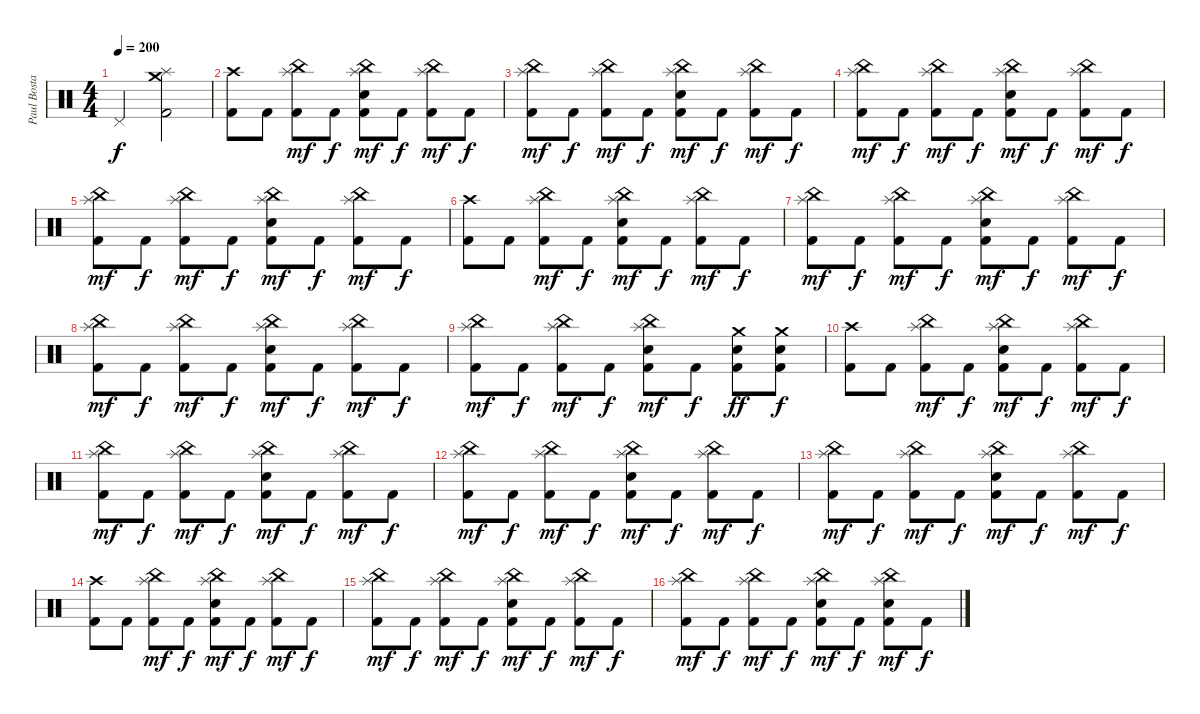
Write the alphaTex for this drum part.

\track ("Paul Bostaph" "Paul Bosta") {instrument percussion}
\staff {score}
\articulation defaults
\ts (4 4)
\tempo 200
\clef neutral
\ks c "Pedal Hi-Hat (hit)".2{dy f}
("Crash medium (hit)" "Splash (hit)" "Kick (hit) 2").2 |
("Kick (hit) 2" "Crash high (hit)").8 "Kick (hit) 2".8 ("Kick (hit) 2" "Splash (hit)" "China (hit)").8{dy mf} "Kick (hit) 2".8{dy f} ("Kick (hit) 2" "Electric Snare (hit)" "Splash (hit)" "China (hit)").8{dy mf} "Kick (hit) 2".8{dy f} ("Kick (hit) 2" "Splash (hit)" "China (hit)").8{dy mf} "Kick (hit) 2".8{dy f} |
("Kick (hit) 2" "Splash (hit)" "China (hit)").8{dy mf} "Kick (hit) 2".8{dy f} ("Kick (hit) 2" "Splash (hit)" "China (hit)").8{dy mf} "Kick (hit) 2".8{dy f} ("Kick (hit) 2" "Electric Snare (hit)" "Splash (hit)" "China (hit)").8{dy mf} "Kick (hit) 2".8{dy f} ("Kick (hit) 2" "Splash (hit)" "China (hit)").8{dy mf} "Kick (hit) 2".8{dy f} |
("Kick (hit) 2" "Splash (hit)" "China (hit)").8{dy mf} "Kick (hit) 2".8{dy f} ("Kick (hit) 2" "Splash (hit)" "China (hit)").8{dy mf} "Kick (hit) 2".8{dy f} ("Kick (hit) 2" "Electric Snare (hit)" "Splash (hit)" "China (hit)").8{dy mf} "Kick (hit) 2".8{dy f} ("Kick (hit) 2" "Splash (hit)" "China (hit)").8{dy mf} "Kick (hit) 2".8{dy f} |
("Kick (hit) 2" "Splash (hit)" "China (hit)").8{dy mf} "Kick (hit) 2".8{dy f} ("Kick (hit) 2" "Splash (hit)" "China (hit)").8{dy mf} "Kick (hit) 2".8{dy f} ("Kick (hit) 2" "Electric Snare (hit)" "Splash (hit)" "China (hit)").8{dy mf} "Kick (hit) 2".8{dy f} ("Kick (hit) 2" "Splash (hit)" "China (hit)").8{dy mf} "Kick (hit) 2".8{dy f} |
("Kick (hit) 2" "Crash high (hit)").8 "Kick (hit) 2".8 ("Kick (hit) 2" "Splash (hit)" "China (hit)").8{dy mf} "Kick (hit) 2".8{dy f} ("Kick (hit) 2" "Electric Snare (hit)" "Splash (hit)" "China (hit)").8{dy mf} "Kick (hit) 2".8{dy f} ("Kick (hit) 2" "Splash (hit)" "China (hit)").8{dy mf} "Kick (hit) 2".8{dy f} |
("Kick (hit) 2" "Splash (hit)" "China (hit)").8{dy mf} "Kick (hit) 2".8{dy f} ("Kick (hit) 2" "Splash (hit)" "China (hit)").8{dy mf} "Kick (hit) 2".8{dy f} ("Kick (hit) 2" "Electric Snare (hit)" "Splash (hit)" "China (hit)").8{dy mf} "Kick (hit) 2".8{dy f} ("Kick (hit) 2" "Splash (hit)" "China (hit)").8{dy mf} "Kick (hit) 2".8{dy f} |
("Kick (hit) 2" "Splash (hit)" "China (hit)").8{dy mf} "Kick (hit) 2".8{dy f} ("Kick (hit) 2" "Splash (hit)" "China (hit)").8{dy mf} "Kick (hit) 2".8{dy f} ("Kick (hit) 2" "Electric Snare (hit)" "Splash (hit)" "China (hit)").8{dy mf} "Kick (hit) 2".8{dy f} ("Kick (hit) 2" "Splash (hit)" "China (hit)").8{dy mf} "Kick (hit) 2".8{dy f} |
("Kick (hit) 2" "Splash (hit)" "China (hit)").8{dy mf} "Kick (hit) 2".8{dy f} ("Kick (hit) 2" "Splash (hit)" "China (hit)").8{dy mf} "Kick (hit) 2".8{dy f} ("Kick (hit) 2" "Electric Snare (hit)" "Splash (hit)" "China (hit)").8{dy mf} "Kick (hit) 2".8{dy f} ("Kick (hit) 2" "Electric Snare (hit)" "Crash medium (hit)").8{dy ff} ("Kick (hit) 2" "Electric Snare (hit)" "Crash medium (hit)").8{dy f} |
("Kick (hit) 2" "Crash high (hit)").8 "Kick (hit) 2".8 ("Kick (hit) 2" "Splash (hit)" "China (hit)").8{dy mf} "Kick (hit) 2".8{dy f} ("Kick (hit) 2" "Electric Snare (hit)" "Splash (hit)" "China (hit)").8{dy mf} "Kick (hit) 2".8{dy f} ("Kick (hit) 2" "Splash (hit)" "China (hit)").8{dy mf} "Kick (hit) 2".8{dy f} |
("Kick (hit) 2" "Splash (hit)" "China (hit)").8{dy mf} "Kick (hit) 2".8{dy f} ("Kick (hit) 2" "Splash (hit)" "China (hit)").8{dy mf} "Kick (hit) 2".8{dy f} ("Kick (hit) 2" "Electric Snare (hit)" "Splash (hit)" "China (hit)").8{dy mf} "Kick (hit) 2".8{dy f} ("Kick (hit) 2" "Splash (hit)" "China (hit)").8{dy mf} "Kick (hit) 2".8{dy f} |
("Kick (hit) 2" "Splash (hit)" "China (hit)").8{dy mf} "Kick (hit) 2".8{dy f} ("Kick (hit) 2" "Splash (hit)" "China (hit)").8{dy mf} "Kick (hit) 2".8{dy f} ("Kick (hit) 2" "Electric Snare (hit)" "Splash (hit)" "China (hit)").8{dy mf} "Kick (hit) 2".8{dy f} ("Kick (hit) 2" "Splash (hit)" "China (hit)").8{dy mf} "Kick (hit) 2".8{dy f} |
("Kick (hit) 2" "Splash (hit)" "China (hit)").8{dy mf} "Kick (hit) 2".8{dy f} ("Kick (hit) 2" "Splash (hit)" "China (hit)").8{dy mf} "Kick (hit) 2".8{dy f} ("Kick (hit) 2" "Electric Snare (hit)" "Splash (hit)" "China (hit)").8{dy mf} "Kick (hit) 2".8{dy f} ("Kick (hit) 2" "Splash (hit)" "China (hit)").8{dy mf} "Kick (hit) 2".8{dy f} |
("Kick (hit) 2" "Crash high (hit)").8 "Kick (hit) 2".8 ("Kick (hit) 2" "Splash (hit)" "China (hit)").8{dy mf} "Kick (hit) 2".8{dy f} ("Kick (hit) 2" "Electric Snare (hit)" "Splash (hit)" "China (hit)").8{dy mf} "Kick (hit) 2".8{dy f} ("Kick (hit) 2" "Splash (hit)" "China (hit)").8{dy mf} "Kick (hit) 2".8{dy f} |
("Kick (hit) 2" "Splash (hit)" "China (hit)").8{dy mf} "Kick (hit) 2".8{dy f} ("Kick (hit) 2" "Splash (hit)" "China (hit)").8{dy mf} "Kick (hit) 2".8{dy f} ("Kick (hit) 2" "Electric Snare (hit)" "Splash (hit)" "China (hit)").8{dy mf} "Kick (hit) 2".8{dy f} ("Kick (hit) 2" "Splash (hit)" "China (hit)").8{dy mf} "Kick (hit) 2".8{dy f} |
("Kick (hit) 2" "Splash (hit)" "China (hit)").8{dy mf} "Kick (hit) 2".8{dy f} ("Kick (hit) 2" "Splash (hit)" "China (hit)").8{dy mf} "Kick (hit) 2".8{dy f} ("Kick (hit) 2" "Electric Snare (hit)" "Splash (hit)" "China (hit)").8{dy mf} "Kick (hit) 2".8{dy f} ("Kick (hit) 2" "Electric Snare (hit)" "Splash (hit)" "China (hit)").8{dy mf} "Kick (hit) 2".8{dy f}
